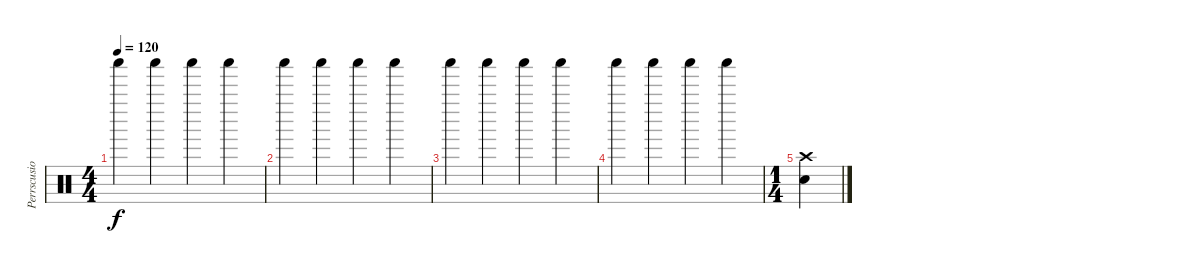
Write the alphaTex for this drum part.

\track ("Perrscusion" "Perrscusio") {instrument percussion}
\staff {score}
\articulation defaults
\ts (4 4)
\tempo 120
\clef neutral
\ks c "Shaker (hit)".4{dy f} "Shaker (hit)".4 "Shaker (hit)".4 "Shaker (hit)".4
|
"Shaker (hit)".4 "Shaker (hit)".4 "Shaker (hit)".4 "Shaker (hit)".4 |
"Shaker (hit)".4 "Shaker (hit)".4 "Shaker (hit)".4 "Shaker (hit)".4 |
"Shaker (hit)".4 "Shaker (hit)".4 "Shaker (hit)".4 "Shaker (hit)".4 |
\ts (1 4)
("Crash high (hit)" "Snare (hit) 2").4
